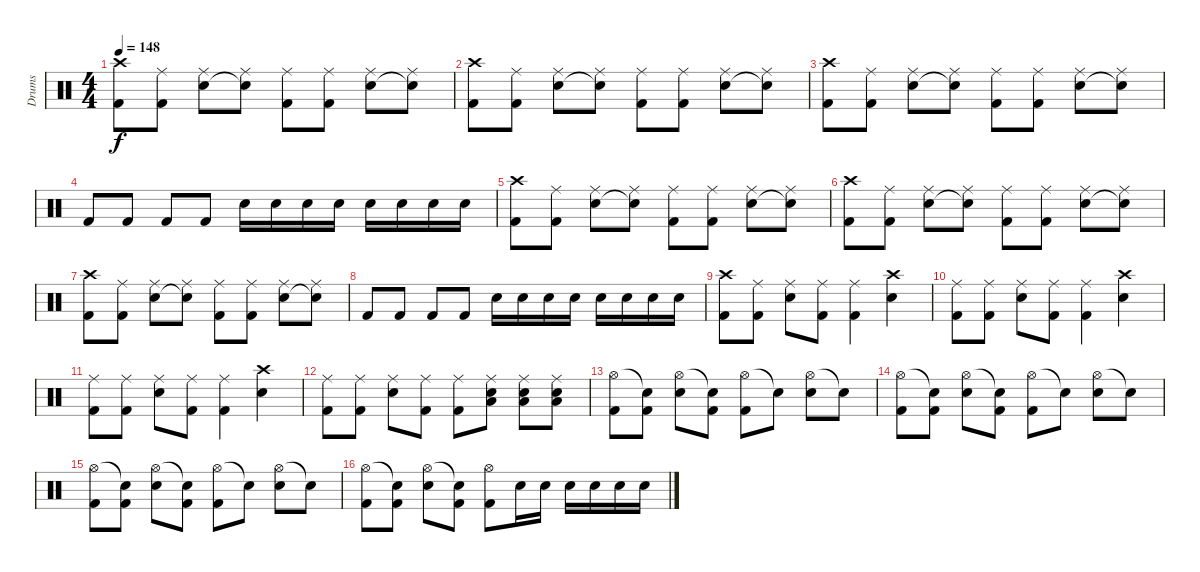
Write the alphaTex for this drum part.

\track ("Drums" "Drums") {instrument percussion}
\staff {score}
\articulation defaults
\ts (4 4)
\tempo 148
\clef neutral
\ks c
("Crash high (hit)" "Kick (hit) 2").8{dy f} ("Ride (middle)" "Kick (hit) 2").8 ("Ride (middle)" "Snare (hit) 2").8 ("Ride (middle)" "Snare (hit)"{t}).8 ("Ride (middle)" "Kick (hit) 2").8 ("Ride (middle)" "Kick (hit) 2").8 ("Ride (middle)" "Snare (hit) 2").8 ("Ride (middle)" "Snare (hit)"{t}).8 |
("Crash high (hit)" "Kick (hit) 2").8 ("Ride (middle)" "Kick (hit) 2").8 ("Ride (middle)" "Snare (hit) 2").8 ("Ride (middle)" "Snare (hit)"{t}).8 ("Ride (middle)" "Kick (hit) 2").8 ("Ride (middle)" "Kick (hit) 2").8 ("Ride (middle)" "Snare (hit) 2").8 ("Ride (middle)" "Snare (hit)"{t}).8 |
("Crash high (hit)" "Kick (hit) 2").8 ("Ride (middle)" "Kick (hit) 2").8 ("Ride (middle)" "Snare (hit) 2").8 ("Ride (middle)" "Snare (hit)"{t}).8 ("Ride (middle)" "Kick (hit) 2").8 ("Ride (middle)" "Kick (hit) 2").8 ("Ride (middle)" "Snare (hit) 2").8 ("Ride (middle)" "Snare (hit)"{t}).8 |
"Kick (hit) 2".8 "Kick (hit) 2".8 "Kick (hit) 2".8 "Kick (hit) 2".8 "Snare (hit) 2".16 "Snare (hit) 2".16 "Snare (hit) 2".16 "Snare (hit) 2".16 "Snare (hit) 2".16 "Snare (hit) 2".16 "Snare (hit) 2".16 "Snare (hit) 2".16 |
("Crash high (hit)" "Kick (hit) 2").8 ("Ride (middle)" "Kick (hit) 2").8 ("Ride (middle)" "Snare (hit) 2").8 ("Ride (middle)" "Snare (hit)"{t}).8 ("Ride (middle)" "Kick (hit) 2").8 ("Ride (middle)" "Kick (hit) 2").8 ("Ride (middle)" "Snare (hit) 2").8 ("Ride (middle)" "Snare (hit)"{t}).8 |
("Crash high (hit)" "Kick (hit) 2").8 ("Ride (middle)" "Kick (hit) 2").8 ("Ride (middle)" "Snare (hit) 2").8 ("Ride (middle)" "Snare (hit)"{t}).8 ("Ride (middle)" "Kick (hit) 2").8 ("Ride (middle)" "Kick (hit) 2").8 ("Ride (middle)" "Snare (hit) 2").8 ("Ride (middle)" "Snare (hit)"{t}).8 |
("Crash high (hit)" "Kick (hit) 2").8 ("Ride (middle)" "Kick (hit) 2").8 ("Ride (middle)" "Snare (hit) 2").8 ("Ride (middle)" "Snare (hit)"{t}).8 ("Ride (middle)" "Kick (hit) 2").8 ("Ride (middle)" "Kick (hit) 2").8 ("Ride (middle)" "Snare (hit) 2").8 ("Ride (middle)" "Snare (hit)"{t}).8 |
"Kick (hit) 2".8 "Kick (hit) 2".8 "Kick (hit) 2".8 "Kick (hit) 2".8 "Snare (hit) 2".16 "Snare (hit) 2".16 "Snare (hit) 2".16 "Snare (hit) 2".16 "Snare (hit) 2".16 "Snare (hit) 2".16 "Snare (hit) 2".16 "Snare (hit) 2".16 |
("Crash high (hit)" "Kick (hit) 2").8 ("Ride (middle)" "Kick (hit) 2").8 ("Ride (middle)" "Snare (hit) 2").8 ("Ride (middle)" "Kick (hit) 2").8 ("Ride (middle)" "Kick (hit) 2").4 ("Crash high (hit)" "Snare (hit) 2").4 |
("Ride (middle)" "Kick (hit) 2").8 ("Ride (middle)" "Kick (hit) 2").8 ("Ride (middle)" "Snare (hit) 2").8 ("Ride (middle)" "Kick (hit) 2").8 ("Ride (middle)" "Kick (hit) 2").4 ("Crash high (hit)" "Snare (hit) 2").4 |
("Ride (middle)" "Kick (hit) 2").8 ("Ride (middle)" "Kick (hit) 2").8 ("Ride (middle)" "Snare (hit) 2").8 ("Ride (middle)" "Kick (hit) 2").8 ("Ride (middle)" "Kick (hit) 2").4 ("Crash high (hit)" "Snare (hit) 2").4 |
("Ride (middle)" "Kick (hit) 2").8 ("Ride (middle)" "Kick (hit) 2").8 ("Ride (middle)" "Snare (hit) 2").8 ("Ride (middle)" "Kick (hit) 2").8 ("Ride (middle)" "Kick (hit) 2").8 ("Ride (middle)" "Low Floor Tom (hit)" "Snare (hit) 2").8 ("Ride (middle)" "Low Floor Tom (hit)" "Snare (hit) 2").8 ("Ride (middle)" "Low Floor Tom (hit)" "Snare (hit) 2").8 |
("Hi-Hat (open)" "Kick (hit) 2").8 ("Snare (hit)"{t} "Kick (hit) 2").8 ("Hi-Hat (open)" "Snare (hit) 2").8 ("Snare (hit)"{t} "Kick (hit) 2").8 ("Hi-Hat (open)" "Kick (hit) 2").8 "Snare (hit)"{t}.8 ("Hi-Hat (open)" "Snare (hit) 2").8 "Snare (hit)"{t}.8 |
("Hi-Hat (open)" "Kick (hit) 2").8 ("Snare (hit)"{t} "Kick (hit) 2").8 ("Hi-Hat (open)" "Snare (hit) 2").8 ("Snare (hit)"{t} "Kick (hit) 2").8 ("Hi-Hat (open)" "Kick (hit) 2").8 "Snare (hit)"{t}.8 ("Hi-Hat (open)" "Snare (hit) 2").8 "Snare (hit)"{t}.8 |
("Hi-Hat (open)" "Kick (hit) 2").8 ("Snare (hit)"{t} "Kick (hit) 2").8 ("Hi-Hat (open)" "Snare (hit) 2").8 ("Snare (hit)"{t} "Kick (hit) 2").8 ("Hi-Hat (open)" "Kick (hit) 2").8 "Snare (hit)"{t}.8 ("Hi-Hat (open)" "Snare (hit) 2").8 "Snare (hit)"{t}.8 |
("Hi-Hat (open)" "Kick (hit) 2").8 ("Snare (hit)"{t} "Kick (hit) 2").8 ("Hi-Hat (open)" "Snare (hit) 2").8 ("Snare (hit)"{t} "Kick (hit) 2").8 ("Hi-Hat (open)" "Kick (hit) 2").8 "Snare (hit) 2".16 "Snare (hit) 2".16 "Snare (hit) 2".16 "Snare (hit) 2".16 "Snare (hit) 2".16 "Snare (hit) 2".16
